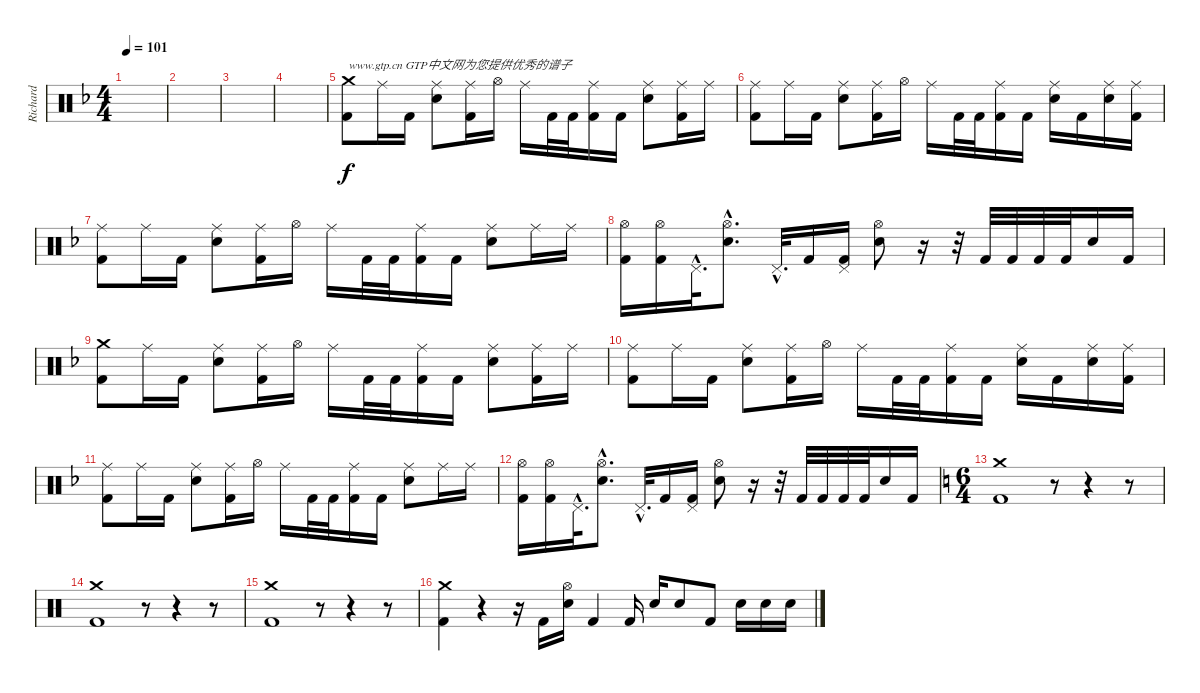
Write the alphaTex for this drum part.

\track ("Richard" "Richard") {instrument percussion}
\staff {score}
\articulation defaults
\ts (4 4)
\tempo 101
\clef neutral
\ks f
|
|
|
|
("Crash medium (hit)" "Kick (hit) 2").8{txt "www.gtp.cn GTP中文网为您提供优秀的谱子"} "Ride (middle)".16 "Kick (hit) 2".16 ("Ride (middle)" "Electric Snare (hit)").8 ("Ride (middle)" "Kick (hit) 2").16 "Hi-Hat (open)".16 "Ride (middle)".16 "Kick (hit) 2".32 "Kick (hit) 2".32 ("Ride (middle)" "Kick (hit) 2").16 "Kick (hit) 2".16 ("Ride (middle)" "Electric Snare (hit)").8 ("Ride (middle)" "Kick (hit) 2").16 "Ride (middle)".16 |
("Ride (middle)" "Kick (hit) 2").8 "Ride (middle)".16 "Kick (hit) 2".16 ("Ride (middle)" "Electric Snare (hit)").8 ("Ride (middle)" "Kick (hit) 2").16 "Hi-Hat (open)".16 "Ride (middle)".16 "Kick (hit) 2".32 "Kick (hit) 2".32 ("Ride (middle)" "Kick (hit) 2").16 "Kick (hit) 2".16 ("Ride (middle)" "Electric Snare (hit)").16 "Kick (hit) 2".16 ("Ride (middle)" "Electric Snare (hit)").16 ("Ride (middle)" "Kick (hit) 2").16 |
("Ride (middle)" "Kick (hit) 2").8 "Ride (middle)".16 "Kick (hit) 2".16 ("Ride (middle)" "Electric Snare (hit)").8 ("Ride (middle)" "Kick (hit) 2").16 "Hi-Hat (open)".16 "Ride (middle)".16 "Kick (hit) 2".32 "Kick (hit) 2".32 ("Ride (middle)" "Kick (hit) 2").16 "Kick (hit) 2".16 ("Ride (middle)" "Electric Snare (hit)").8 "Ride (middle)".16 "Ride (middle)".16 |
("Hi-Hat (open)" "Kick (hit) 2").16 ("Hi-Hat (open)" "Kick (hit) 2").16 "Pedal Hi-Hat (hit)"{hac}.32{d} ("Hi-Hat (open)"{hac} "Electric Snare (hit)"{hac}).8{d} "Pedal Hi-Hat (hit)"{hac}.32{d} "Kick (hit) 2".16 ("Pedal Hi-Hat (hit)" "Kick (hit) 2").16 ("Hi-Hat (open)" "Electric Snare (hit)").8 r.16 r.32 "Kick (hit) 2".32 "Kick (hit) 2".32 "Kick (hit) 2".32 "Kick (hit) 2".32 "Electric Snare (hit)".16 "Kick (hit) 2".16 |
("Crash medium (hit)" "Kick (hit) 2").8 "Ride (middle)".16 "Kick (hit) 2".16 ("Ride (middle)" "Electric Snare (hit)").8 ("Ride (middle)" "Kick (hit) 2").16 "Hi-Hat (open)".16 "Ride (middle)".16 "Kick (hit) 2".32 "Kick (hit) 2".32 ("Ride (middle)" "Kick (hit) 2").16 "Kick (hit) 2".16 ("Ride (middle)" "Electric Snare (hit)").8 ("Ride (middle)" "Kick (hit) 2").16 "Ride (middle)".16 |
("Ride (middle)" "Kick (hit) 2").8 "Ride (middle)".16 "Kick (hit) 2".16 ("Ride (middle)" "Electric Snare (hit)").8 ("Ride (middle)" "Kick (hit) 2").16 "Hi-Hat (open)".16 "Ride (middle)".16 "Kick (hit) 2".32 "Kick (hit) 2".32 ("Ride (middle)" "Kick (hit) 2").16 "Kick (hit) 2".16 ("Ride (middle)" "Electric Snare (hit)").16 "Kick (hit) 2".16 ("Ride (middle)" "Electric Snare (hit)").16 ("Ride (middle)" "Kick (hit) 2").16 |
("Ride (middle)" "Kick (hit) 2").8 "Ride (middle)".16 "Kick (hit) 2".16 ("Ride (middle)" "Electric Snare (hit)").8 ("Ride (middle)" "Kick (hit) 2").16 "Hi-Hat (open)".16 "Ride (middle)".16 "Kick (hit) 2".32 "Kick (hit) 2".32 ("Ride (middle)" "Kick (hit) 2").16 "Kick (hit) 2".16 ("Ride (middle)" "Electric Snare (hit)").8 "Ride (middle)".16 "Ride (middle)".16 |
("Hi-Hat (open)" "Kick (hit) 2").16 ("Hi-Hat (open)" "Kick (hit) 2").16 "Pedal Hi-Hat (hit)"{hac}.32{d} ("Hi-Hat (open)"{hac} "Electric Snare (hit)"{hac}).8{d} "Pedal Hi-Hat (hit)"{hac}.32{d} "Kick (hit) 2".16 ("Pedal Hi-Hat (hit)" "Kick (hit) 2").16 ("Hi-Hat (open)" "Electric Snare (hit)").8 r.16 r.32 "Kick (hit) 2".32 "Kick (hit) 2".32 "Kick (hit) 2".32 "Kick (hit) 2".32 "Electric Snare (hit)".16 "Kick (hit) 2".16 |
\ts (6 4)
\ks c
("Crash medium (hit)" "Kick (hit) 2").1 r.8 r.4 r.8 |
("Crash medium (hit)" "Kick (hit) 2").1 r.8 r.4 r.8 |
("Crash medium (hit)" "Kick (hit) 2").1 r.8 r.4 r.8 |
("Crash medium (hit)" "Kick (hit) 2").4 r.4 r.16 "Kick (hit) 2".16 ("Hi-Hat (open)" "Electric Snare (hit)").16 "Kick (hit) 2".4 "Kick (hit) 2".16 "Electric Snare (hit)".16 "Electric Snare (hit)".8 "Kick (hit) 2".8 "Electric Snare (hit)".16 "Electric Snare (hit)".16 "Electric Snare (hit)".16
